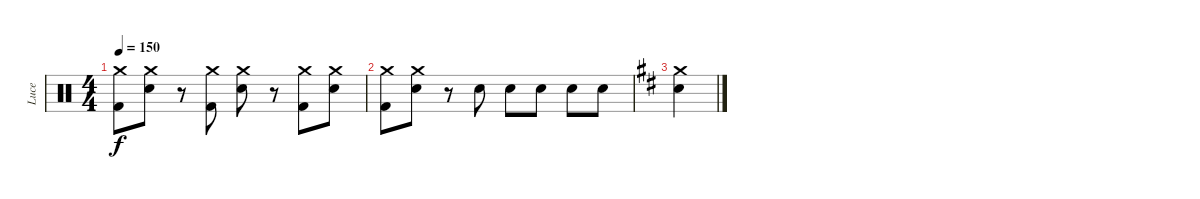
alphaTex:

\track ("Luce" "Luce") {instrument percussion}
\staff {score}
\articulation defaults
\ts (4 4)
\tempo 150
\clef neutral
\ks c
("Crash medium (hit)" "Kick (hit) 2").8{dy f} ("Crash medium (hit)" "Snare (hit) 2").8 r.8 ("Crash medium (hit)" "Kick (hit) 2").8 ("Crash medium (hit)" "Snare (hit) 2").8 r.8 ("Crash medium (hit)" "Kick (hit) 2").8 ("Crash medium (hit)" "Snare (hit) 2").8 |
("Crash medium (hit)" "Kick (hit) 2").8 ("Crash medium (hit)" "Snare (hit) 2").8 r.8 "Snare (hit) 2".8 "Snare (hit) 2".8 "Snare (hit) 2".8 "Snare (hit) 2".8 "Snare (hit) 2".8 |
\ks d
("Crash medium (hit)" "Snare (hit) 2").4
